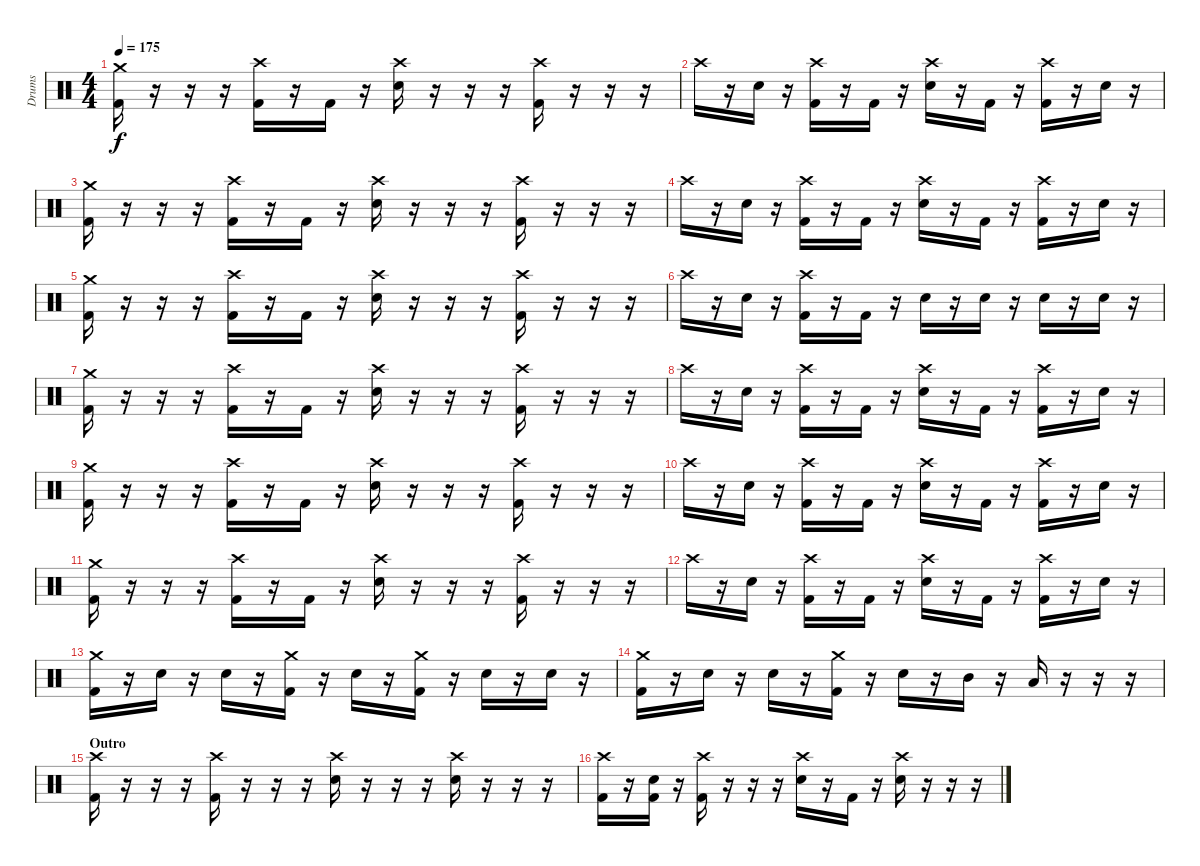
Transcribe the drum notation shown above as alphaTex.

\track ("Drums" "Drums") {instrument percussion}
\staff {score}
\articulation defaults
\ts (4 4)
\tempo 175
\clef neutral
\ks c
("Crash medium (hit)" "Kick (hit) 2").16{dy f} r.16 r.16 r.16 ("Crash high (hit)" "Kick (hit) 2").16 r.16 "Kick (hit) 2".16 r.16 ("Crash high (hit)" "Snare (hit) 2").16 r.16 r.16 r.16 ("Crash high (hit)" "Kick (hit) 2").16 r.16 r.16 r.16 |
"Crash high (hit)".16 r.16 "Snare (hit) 2".16 r.16 ("Crash high (hit)" "Kick (hit) 2").16 r.16 "Kick (hit) 2".16 r.16 ("Crash high (hit)" "Snare (hit) 2").16 r.16 "Kick (hit) 2".16 r.16 ("Crash high (hit)" "Kick (hit) 2").16 r.16 "Snare (hit) 2".16 r.16 |
("Crash medium (hit)" "Kick (hit) 2").16 r.16 r.16 r.16 ("Crash high (hit)" "Kick (hit) 2").16 r.16 "Kick (hit) 2".16 r.16 ("Crash high (hit)" "Snare (hit) 2").16 r.16 r.16 r.16 ("Crash high (hit)" "Kick (hit) 2").16 r.16 r.16 r.16 |
"Crash high (hit)".16 r.16 "Snare (hit) 2".16 r.16 ("Crash high (hit)" "Kick (hit) 2").16 r.16 "Kick (hit) 2".16 r.16 ("Crash high (hit)" "Snare (hit) 2").16 r.16 "Kick (hit) 2".16 r.16 ("Crash high (hit)" "Kick (hit) 2").16 r.16 "Snare (hit) 2".16 r.16 |
("Crash medium (hit)" "Kick (hit) 2").16 r.16 r.16 r.16 ("Crash high (hit)" "Kick (hit) 2").16 r.16 "Kick (hit) 2".16 r.16 ("Crash high (hit)" "Snare (hit) 2").16 r.16 r.16 r.16 ("Crash high (hit)" "Kick (hit) 2").16 r.16 r.16 r.16 |
"Crash high (hit)".16 r.16 "Snare (hit) 2".16 r.16 ("Crash high (hit)" "Kick (hit) 2").16 r.16 "Kick (hit) 2".16 r.16 "Snare (hit) 2".16 r.16 "Snare (hit) 2".16 r.16 "Snare (hit) 2".16 r.16 "Snare (hit) 2".16 r.16 |
("Crash medium (hit)" "Kick (hit) 2").16 r.16 r.16 r.16 ("Crash high (hit)" "Kick (hit) 2").16 r.16 "Kick (hit) 2".16 r.16 ("Crash high (hit)" "Snare (hit) 2").16 r.16 r.16 r.16 ("Crash high (hit)" "Kick (hit) 2").16 r.16 r.16 r.16 |
"Crash high (hit)".16 r.16 "Snare (hit) 2".16 r.16 ("Crash high (hit)" "Kick (hit) 2").16 r.16 "Kick (hit) 2".16 r.16 ("Crash high (hit)" "Snare (hit) 2").16 r.16 "Kick (hit) 2".16 r.16 ("Crash high (hit)" "Kick (hit) 2").16 r.16 "Snare (hit) 2".16 r.16 |
("Crash medium (hit)" "Kick (hit) 2").16 r.16 r.16 r.16 ("Crash high (hit)" "Kick (hit) 2").16 r.16 "Kick (hit) 2".16 r.16 ("Crash high (hit)" "Snare (hit) 2").16 r.16 r.16 r.16 ("Crash high (hit)" "Kick (hit) 2").16 r.16 r.16 r.16 |
"Crash high (hit)".16 r.16 "Snare (hit) 2".16 r.16 ("Crash high (hit)" "Kick (hit) 2").16 r.16 "Kick (hit) 2".16 r.16 ("Crash high (hit)" "Snare (hit) 2").16 r.16 "Kick (hit) 2".16 r.16 ("Crash high (hit)" "Kick (hit) 2").16 r.16 "Snare (hit) 2".16 r.16 |
\section ("" "")
("Crash medium (hit)" "Kick (hit) 2").16 r.16 r.16 r.16 ("Crash high (hit)" "Kick (hit) 2").16 r.16 "Kick (hit) 2".16 r.16 ("Crash high (hit)" "Snare (hit) 2").16 r.16 r.16 r.16 ("Crash high (hit)" "Kick (hit) 2").16 r.16 r.16 r.16 |
"Crash high (hit)".16 r.16 "Snare (hit) 2".16 r.16 ("Crash high (hit)" "Kick (hit) 2").16 r.16 "Kick (hit) 2".16 r.16 ("Crash high (hit)" "Snare (hit) 2").16 r.16 "Kick (hit) 2".16 r.16 ("Crash high (hit)" "Kick (hit) 2").16 r.16 "Snare (hit) 2".16 r.16 |
("Crash medium (hit)" "Kick (hit) 2").16 r.16 "Snare (hit) 2".16 r.16 "Snare (hit) 2".16 r.16 ("Crash medium (hit)" "Kick (hit) 2").16 r.16 "Snare (hit) 2".16 r.16 ("Crash medium (hit)" "Kick (hit) 2").16 r.16 "Snare (hit) 2".16 r.16 "Snare (hit) 2".16 r.16 |
("Crash medium (hit)" "Kick (hit) 2").16 r.16 "Snare (hit) 2".16 r.16 "Snare (hit) 2".16 r.16 ("Crash medium (hit)" "Kick (hit) 2").16 r.16 "Snare (hit) 2".16 r.16 "Mid Tom (hit)".16 r.16 "Low Floor Tom (hit)".16 r.16 r.16 r.16 |
\section ("" "Outro")
("Crash high (hit)" "Kick (hit) 2").16 r.16 r.16 r.16 ("Crash high (hit)" "Kick (hit) 2").16 r.16 r.16 r.16 ("Crash high (hit)" "Snare (hit) 2").16 r.16 r.16 r.16 ("Crash high (hit)" "Snare (hit) 2").16 r.16 r.16 r.16 |
("Crash high (hit)" "Kick (hit) 2").16 r.16 ("Snare (hit) 2" "Kick (hit) 2").16 r.16 ("Crash high (hit)" "Kick (hit) 2").16 r.16 r.16 r.16 ("Crash high (hit)" "Snare (hit) 2").16 r.16 "Kick (hit) 2".16 r.16 ("Crash high (hit)" "Snare (hit) 2").16 r.16 r.16 r.16
